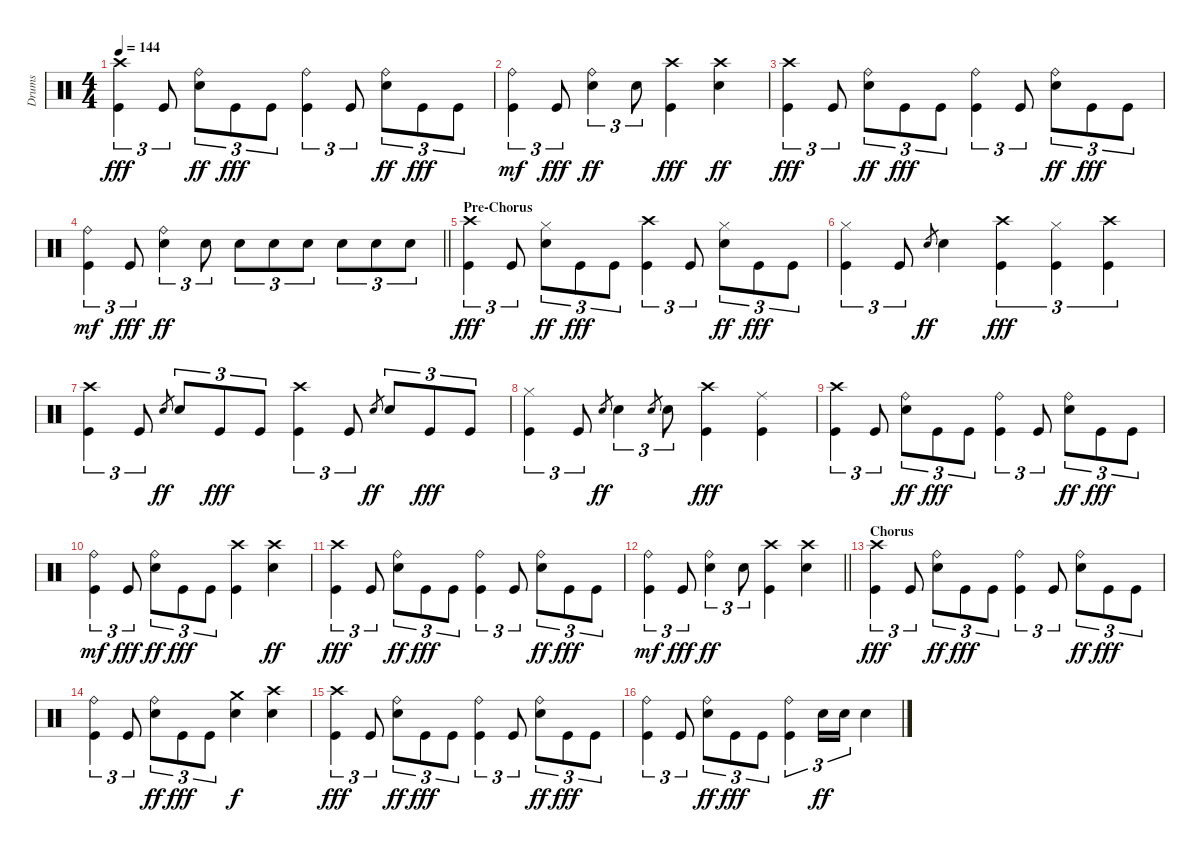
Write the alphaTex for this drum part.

\track ("Drums" "Drums") {instrument percussion}
\staff {score}
\articulation defaults
\ts (4 4)
\tempo 144
\clef neutral
\ks c
("Kick (hit)" "Crash high (hit)").4{tu (3 2) dy fff} "Kick (hit)".8{tu (3 2)} ("Ride (bell)" "Snare (hit) 2").8{tu (3 2) dy ff} "Kick (hit)".8{tu (3 2) dy fff} "Kick (hit)".8{tu (3 2)} ("Ride (bell)" "Kick (hit)").4{tu (3 2)} "Kick (hit)".8{tu (3 2)} ("Ride (bell)" "Snare (hit) 2").8{tu (3 2) dy ff} "Kick (hit)".8{tu (3 2) dy fff} "Kick (hit)".8{tu (3 2)} |
("Kick (hit)" "Ride (bell)").4{tu (3 2) dy mf} "Kick (hit)".8{tu (3 2) dy fff} ("Ride (bell)" "Snare (hit) 2").4{tu (3 2) dy ff} "Snare (hit) 2".8{tu (3 2)} ("Crash high (hit)" "Kick (hit)").4{dy fff} ("Snare (hit) 2" "Crash high (hit)").4{dy ff} |
("Kick (hit)" "Crash high (hit)").4{tu (3 2) dy fff} "Kick (hit)".8{tu (3 2)} ("Ride (bell)" "Snare (hit) 2").8{tu (3 2) dy ff} "Kick (hit)".8{tu (3 2) dy fff} "Kick (hit)".8{tu (3 2)} ("Ride (bell)" "Kick (hit)").4{tu (3 2)} "Kick (hit)".8{tu (3 2)} ("Ride (bell)" "Snare (hit) 2").8{tu (3 2) dy ff} "Kick (hit)".8{tu (3 2) dy fff} "Kick (hit)".8{tu (3 2)} |
\barLineRight lightlight
("Kick (hit)" "Ride (bell)").4{tu (3 2) dy mf} "Kick (hit)".8{tu (3 2) dy fff} ("Ride (bell)" "Snare (hit) 2").4{tu (3 2) dy ff} "Snare (hit) 2".8{tu (3 2)} "Snare (hit) 2".8{tu (3 2)} "Snare (hit) 2".8{tu (3 2)} "Snare (hit) 2".8{tu (3 2)} "Snare (hit) 2".8{tu (3 2)} "Snare (hit) 2".8{tu (3 2)} "Snare (hit) 2".8{tu (3 2)} |
\section ("" "Pre-Chorus")
("Kick (hit)" "Crash high (hit)").4{tu (3 2) dy fff} "Kick (hit)".8{tu (3 2)} ("Hi-Hat (closed)" "Snare (hit) 2").8{tu (3 2) dy ff} "Kick (hit)".8{tu (3 2) dy fff} "Kick (hit)".8{tu (3 2)} ("Crash high (hit)" "Kick (hit)").4{tu (3 2)} "Kick (hit)".8{tu (3 2)} ("Hi-Hat (closed)" "Snare (hit) 2").8{tu (3 2) dy ff} "Kick (hit)".8{tu (3 2) dy fff} "Kick (hit)".8{tu (3 2)} |
("Kick (hit)" "Hi-Hat (closed)").4{tu (3 2)} "Kick (hit)".8{tu (3 2)} "Snare (hit) 2".8{gr dy ff} "Snare (hit) 2".4 ("Crash high (hit)" "Kick (hit)").4{tu (3 2) dy fff} ("Kick (hit)" "Hi-Hat (closed)").4{tu (3 2)} ("Crash high (hit)" "Kick (hit)").4{tu (3 2)} |
("Kick (hit)" "Crash high (hit)").4{tu (3 2)} "Kick (hit)".8{tu (3 2)} "Snare (hit) 2".8{gr dy ff} "Snare (hit) 2".8{tu (3 2)} "Kick (hit)".8{tu (3 2) dy fff} "Kick (hit)".8{tu (3 2)} ("Crash high (hit)" "Kick (hit)").4{tu (3 2)} "Kick (hit)".8{tu (3 2)} "Snare (hit) 2".8{gr dy ff} "Snare (hit) 2".8{tu (3 2)} "Kick (hit)".8{tu (3 2) dy fff} "Kick (hit)".8{tu (3 2)} |
("Kick (hit)" "Hi-Hat (closed)").4{tu (3 2)} "Kick (hit)".8{tu (3 2)} "Snare (hit) 2".8{gr dy ff} "Snare (hit) 2".4{tu (3 2)} "Snare (hit) 2".8{gr} "Snare (hit) 2".8{tu (3 2)} ("Kick (hit)" "Crash high (hit)").4{dy fff} ("Ride (middle)" "Kick (hit)").4 |
("Kick (hit)" "Crash high (hit)").4{tu (3 2)} "Kick (hit)".8{tu (3 2)} ("Ride (bell)" "Snare (hit) 2").8{tu (3 2) dy ff} "Kick (hit)".8{tu (3 2) dy fff} "Kick (hit)".8{tu (3 2)} ("Ride (bell)" "Kick (hit)").4{tu (3 2)} "Kick (hit)".8{tu (3 2)} ("Ride (bell)" "Snare (hit) 2").8{tu (3 2) dy ff} "Kick (hit)".8{tu (3 2) dy fff} "Kick (hit)".8{tu (3 2)} |
("Kick (hit)" "Ride (bell)").4{tu (3 2) dy mf} "Kick (hit)".8{tu (3 2) dy fff} ("Ride (bell)" "Snare (hit) 2").8{tu (3 2) dy ff} "Kick (hit)".8{tu (3 2) dy fff} "Kick (hit)".8{tu (3 2)} ("Crash high (hit)" "Kick (hit)").4 ("Snare (hit) 2" "Crash high (hit)").4{dy ff} |
("Kick (hit)" "Crash high (hit)").4{tu (3 2) dy fff} "Kick (hit)".8{tu (3 2)} ("Ride (bell)" "Snare (hit) 2").8{tu (3 2) dy ff} "Kick (hit)".8{tu (3 2) dy fff} "Kick (hit)".8{tu (3 2)} ("Ride (bell)" "Kick (hit)").4{tu (3 2)} "Kick (hit)".8{tu (3 2)} ("Ride (bell)" "Snare (hit) 2").8{tu (3 2) dy ff} "Kick (hit)".8{tu (3 2) dy fff} "Kick (hit)".8{tu (3 2)} |
\barLineRight lightlight
("Kick (hit)" "Ride (bell)").4{tu (3 2) dy mf} "Kick (hit)".8{tu (3 2) dy fff} ("Ride (bell)" "Snare (hit) 2").4{tu (3 2) dy ff} "Snare (hit) 2".8{tu (3 2)} ("Crash high (hit)" "Kick (hit)").4 ("Snare (hit) 2" "Crash high (hit)").4 |
\section ("" "Chorus")
("Kick (hit)" "Crash high (hit)").4{tu (3 2) dy fff} "Kick (hit)".8{tu (3 2)} ("Ride (bell)" "Snare (hit) 2").8{tu (3 2) dy ff} "Kick (hit)".8{tu (3 2) dy fff} "Kick (hit)".8{tu (3 2)} ("Ride (bell)" "Kick (hit)").4{tu (3 2)} "Kick (hit)".8{tu (3 2)} ("Ride (bell)" "Snare (hit) 2").8{tu (3 2) dy ff} "Kick (hit)".8{tu (3 2) dy fff} "Kick (hit)".8{tu (3 2)} |
("Kick (hit)" "Ride (bell)").4{tu (3 2)} "Kick (hit)".8{tu (3 2)} ("Ride (bell)" "Snare (hit) 2").8{tu (3 2) dy ff} "Kick (hit)".8{tu (3 2) dy fff} "Kick (hit)".8{tu (3 2)} ("Snare (hit) 2" "Crash medium (hit)").4{dy f} ("Snare (hit) 2" "Crash high (hit)").4 |
("Kick (hit)" "Crash high (hit)").4{tu (3 2) dy fff} "Kick (hit)".8{tu (3 2)} ("Ride (bell)" "Snare (hit) 2").8{tu (3 2) dy ff} "Kick (hit)".8{tu (3 2) dy fff} "Kick (hit)".8{tu (3 2)} ("Ride (bell)" "Kick (hit)").4{tu (3 2)} "Kick (hit)".8{tu (3 2)} ("Ride (bell)" "Snare (hit) 2").8{tu (3 2) dy ff} "Kick (hit)".8{tu (3 2) dy fff} "Kick (hit)".8{tu (3 2)} |
("Kick (hit)" "Ride (bell)").4{tu (3 2)} "Kick (hit)".8{tu (3 2)} ("Ride (bell)" "Snare (hit) 2").8{tu (3 2) dy ff} "Kick (hit)".8{tu (3 2) dy fff} "Kick (hit)".8{tu (3 2)} ("Ride (bell)" "Kick (hit)").4{tu (3 2)} "Snare (hit) 2".16{tu (3 2) dy ff} "Snare (hit) 2".16{tu (3 2)} "Snare (hit) 2".4
